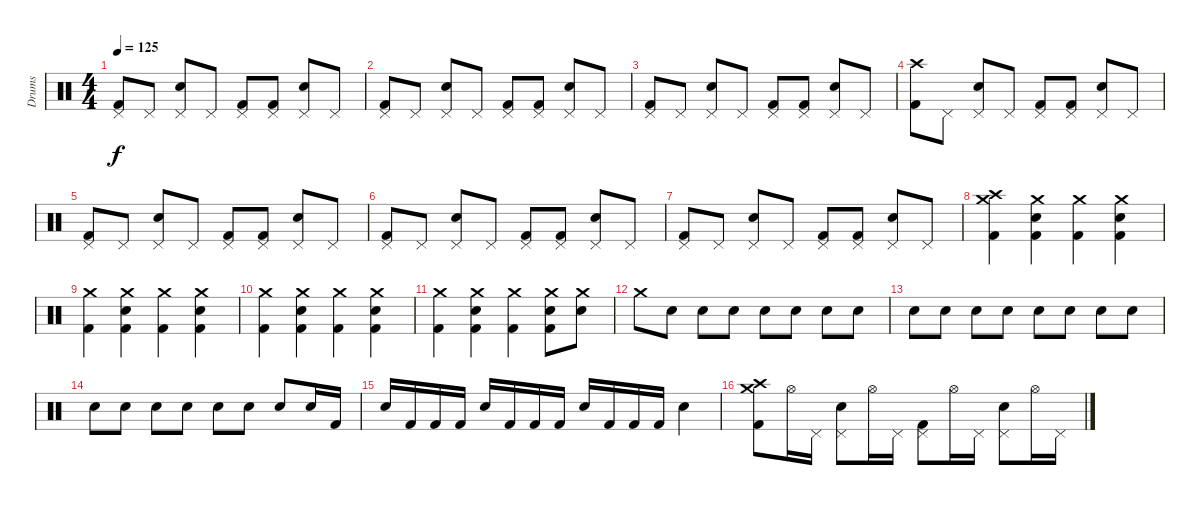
\track ("Drums" "Drums") {instrument percussion}
\staff {score}
\articulation defaults
\ts (4 4)
\tempo 125
\clef neutral
\ks c
("Pedal Hi-Hat (hit)" "Kick (hit) 2").8{dy f} "Pedal Hi-Hat (hit)".8 ("Pedal Hi-Hat (hit)" "Snare (hit) 2").8 "Pedal Hi-Hat (hit)".8 ("Pedal Hi-Hat (hit)" "Kick (hit) 2").8 ("Pedal Hi-Hat (hit)" "Kick (hit) 2").8 ("Pedal Hi-Hat (hit)" "Snare (hit) 2").8 "Pedal Hi-Hat (hit)".8 |
("Pedal Hi-Hat (hit)" "Kick (hit) 2").8 "Pedal Hi-Hat (hit)".8 ("Pedal Hi-Hat (hit)" "Snare (hit) 2").8 "Pedal Hi-Hat (hit)".8 ("Pedal Hi-Hat (hit)" "Kick (hit) 2").8 ("Pedal Hi-Hat (hit)" "Kick (hit) 2").8 ("Pedal Hi-Hat (hit)" "Snare (hit) 2").8 "Pedal Hi-Hat (hit)".8 |
("Pedal Hi-Hat (hit)" "Kick (hit) 2").8 "Pedal Hi-Hat (hit)".8 ("Pedal Hi-Hat (hit)" "Snare (hit) 2").8 "Pedal Hi-Hat (hit)".8 ("Pedal Hi-Hat (hit)" "Kick (hit) 2").8 ("Pedal Hi-Hat (hit)" "Kick (hit) 2").8 ("Pedal Hi-Hat (hit)" "Snare (hit) 2").8 "Pedal Hi-Hat (hit)".8 |
("Crash high (hit)" "Kick (hit) 2").8 "Pedal Hi-Hat (hit)".8 ("Pedal Hi-Hat (hit)" "Snare (hit) 2").8 "Pedal Hi-Hat (hit)".8 ("Pedal Hi-Hat (hit)" "Kick (hit) 2").8 ("Pedal Hi-Hat (hit)" "Kick (hit) 2").8 ("Pedal Hi-Hat (hit)" "Snare (hit) 2").8 "Pedal Hi-Hat (hit)".8 |
("Pedal Hi-Hat (hit)" "Kick (hit) 2").8 "Pedal Hi-Hat (hit)".8 ("Pedal Hi-Hat (hit)" "Snare (hit) 2").8 "Pedal Hi-Hat (hit)".8 ("Pedal Hi-Hat (hit)" "Kick (hit) 2").8 ("Pedal Hi-Hat (hit)" "Kick (hit) 2").8 ("Pedal Hi-Hat (hit)" "Snare (hit) 2").8 "Pedal Hi-Hat (hit)".8 |
("Pedal Hi-Hat (hit)" "Kick (hit) 2").8 "Pedal Hi-Hat (hit)".8 ("Pedal Hi-Hat (hit)" "Snare (hit) 2").8 "Pedal Hi-Hat (hit)".8 ("Pedal Hi-Hat (hit)" "Kick (hit) 2").8 ("Pedal Hi-Hat (hit)" "Kick (hit) 2").8 ("Pedal Hi-Hat (hit)" "Snare (hit) 2").8 "Pedal Hi-Hat (hit)".8 |
("Pedal Hi-Hat (hit)" "Kick (hit) 2").8 "Pedal Hi-Hat (hit)".8 ("Pedal Hi-Hat (hit)" "Snare (hit) 2").8 "Pedal Hi-Hat (hit)".8 ("Pedal Hi-Hat (hit)" "Kick (hit) 2").8 ("Pedal Hi-Hat (hit)" "Kick (hit) 2").8 ("Pedal Hi-Hat (hit)" "Snare (hit) 2").8 "Pedal Hi-Hat (hit)".8 |
("Crash medium (hit)" "Crash high (hit)" "Kick (hit) 2").4 ("Crash medium (hit)" "Snare (hit) 2" "Kick (hit) 2").4 ("Crash medium (hit)" "Kick (hit) 2").4 ("Crash medium (hit)" "Snare (hit) 2" "Kick (hit) 2").4 |
("Crash medium (hit)" "Kick (hit) 2").4 ("Crash medium (hit)" "Snare (hit) 2" "Kick (hit) 2").4 ("Crash medium (hit)" "Kick (hit) 2").4 ("Crash medium (hit)" "Snare (hit) 2" "Kick (hit) 2").4 |
("Crash medium (hit)" "Kick (hit) 2").4 ("Crash medium (hit)" "Snare (hit) 2" "Kick (hit) 2").4 ("Crash medium (hit)" "Kick (hit) 2").4 ("Crash medium (hit)" "Snare (hit) 2" "Kick (hit) 2").4 |
("Crash medium (hit)" "Kick (hit) 2").4 ("Crash medium (hit)" "Snare (hit) 2" "Kick (hit) 2").4 ("Crash medium (hit)" "Kick (hit) 2").4 ("Crash medium (hit)" "Snare (hit) 2" "Kick (hit) 2").8 ("Crash medium (hit)" "Snare (hit) 2").8 |
"Crash medium (hit)".8 "Snare (hit) 2".8 "Snare (hit) 2".8 "Snare (hit) 2".8 "Snare (hit) 2".8 "Snare (hit) 2".8 "Snare (hit) 2".8 "Snare (hit) 2".8 |
"Snare (hit) 2".8 "Snare (hit) 2".8 "Snare (hit) 2".8 "Snare (hit) 2".8 "Snare (hit) 2".8 "Snare (hit) 2".8 "Snare (hit) 2".8 "Snare (hit) 2".8 |
"Snare (hit) 2".8 "Snare (hit) 2".8 "Snare (hit) 2".8 "Snare (hit) 2".8 "Snare (hit) 2".8 "Snare (hit) 2".8 "Snare (hit) 2".8 "Snare (hit) 2".16 "Kick (hit) 2".16 |
"Snare (hit) 2".16 "Kick (hit) 2".16 "Kick (hit) 2".16 "Kick (hit) 2".16 "Snare (hit) 2".16 "Kick (hit) 2".16 "Kick (hit) 2".16 "Kick (hit) 2".16 "Snare (hit) 2".16 "Kick (hit) 2".16 "Kick (hit) 2".16 "Kick (hit) 2".16 "Snare (hit) 2".4 |
("Crash high (hit)" "Crash medium (hit)" "Kick (hit) 2").8 "Hi-Hat (open)".16 "Pedal Hi-Hat (hit)".16 ("Pedal Hi-Hat (hit)" "Snare (hit) 2").8 "Hi-Hat (open)".16 "Pedal Hi-Hat (hit)".16 ("Pedal Hi-Hat (hit)" "Kick (hit) 2").8 "Hi-Hat (open)".16 "Pedal Hi-Hat (hit)".16 ("Pedal Hi-Hat (hit)" "Snare (hit) 2").8 "Hi-Hat (open)".16 "Pedal Hi-Hat (hit)".16
